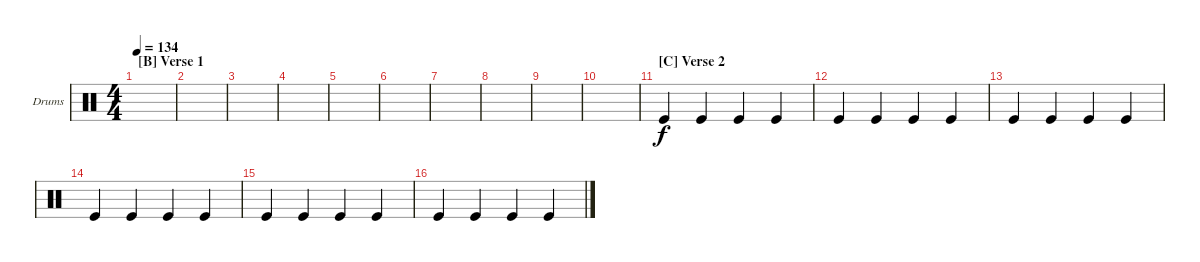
\defaultSystemsLayout 4
\bracketExtendMode groupsimilarinstruments
\firstSystemTrackNameOrientation horizontal
\otherSystemsTrackNameOrientation horizontal
\track ("Bass Drum" "Drums") {instrument percussion}
\staff {score}
\articulation defaults
\ts (4 4)
\section ("B" "Verse 1")
\tempo 134
\clef neutral
\scale
0.333333
\ks c
|
\scale
0.333333 |
\scale
0.333333 |
\scale
0.333333 |
\scale
0.333333 |
\scale
0.333333 |
\scale
0.333333 |
\scale
0.333333 |
\scale
0.333333 |
\scale
0.333333 |
\section ("C" "Verse 2")
"Kick (hit)".4 "Kick (hit)".4 "Kick (hit)".4 "Kick (hit)".4 |
"Kick (hit)".4 "Kick (hit)".4 "Kick (hit)".4 "Kick (hit)".4 |
"Kick (hit)".4 "Kick (hit)".4 "Kick (hit)".4 "Kick (hit)".4 |
"Kick (hit)".4 "Kick (hit)".4 "Kick (hit)".4 "Kick (hit)".4 |
"Kick (hit)".4 "Kick (hit)".4 "Kick (hit)".4 "Kick (hit)".4 |
"Kick (hit)".4 "Kick (hit)".4 "Kick (hit)".4 "Kick (hit)".4
